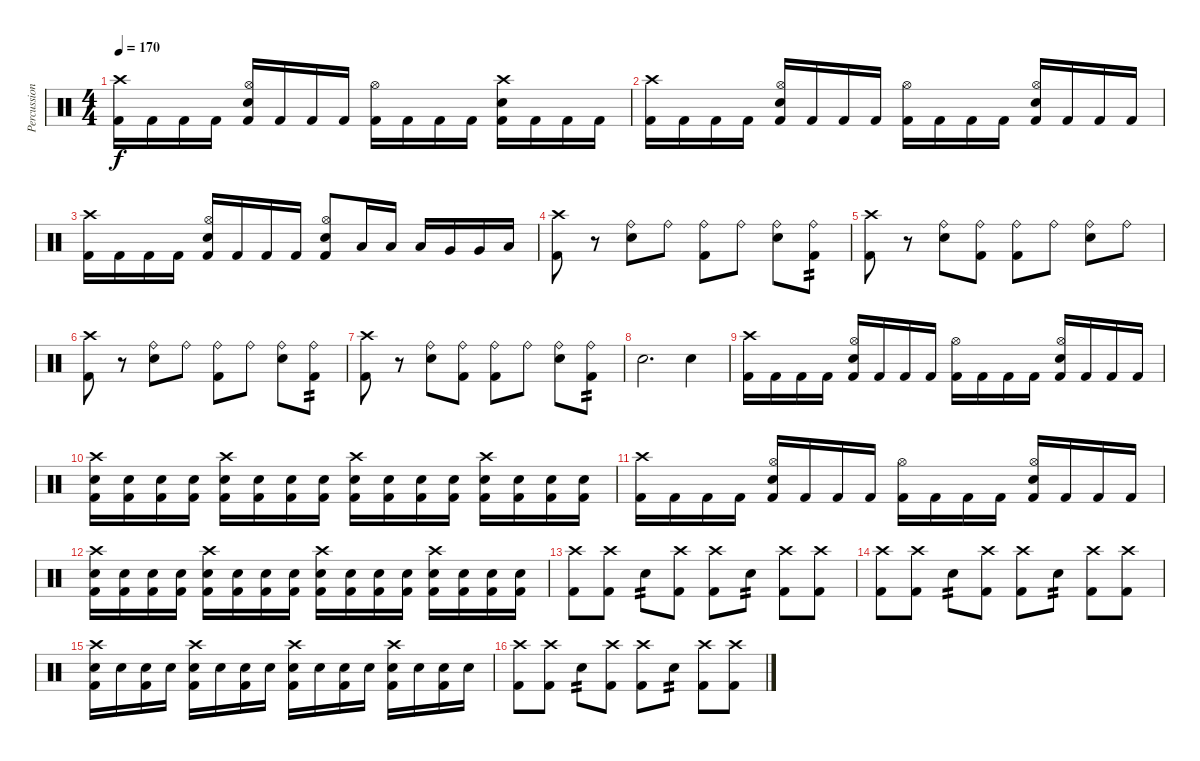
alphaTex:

\track ("Percussion" "Percussion") {instrument percussion}
\staff {score}
\articulation defaults
\ts (4 4)
\tempo 170
\clef neutral
\ks c
("Crash high (hit)" "Kick (hit) 2").16{dy f} "Kick (hit) 2".16 "Kick (hit) 2".16 "Kick (hit) 2".16 ("Hi-Hat (open)" "Electric Snare (hit)" "Kick (hit) 2").16 "Kick (hit) 2".16 "Kick (hit) 2".16 "Kick (hit) 2".16 ("Hi-Hat (open)" "Kick (hit) 2").16 "Kick (hit) 2".16 "Kick (hit) 2".16 "Kick (hit) 2".16 ("Crash high (hit)" "Electric Snare (hit)" "Kick (hit) 2").16 "Kick (hit) 2".16 "Kick (hit) 2".16 "Kick (hit) 2".16 |
("Crash high (hit)" "Kick (hit) 2").16 "Kick (hit) 2".16 "Kick (hit) 2".16 "Kick (hit) 2".16 ("Hi-Hat (open)" "Electric Snare (hit)" "Kick (hit) 2").16 "Kick (hit) 2".16 "Kick (hit) 2".16 "Kick (hit) 2".16 ("Hi-Hat (open)" "Kick (hit) 2").16 "Kick (hit) 2".16 "Kick (hit) 2".16 "Kick (hit) 2".16 ("Hi-Hat (open)" "Electric Snare (hit)" "Kick (hit) 2").16 "Kick (hit) 2".16 "Kick (hit) 2".16 "Kick (hit) 2".16 |
("Crash high (hit)" "Kick (hit) 2").16 "Kick (hit) 2".16 "Kick (hit) 2".16 "Kick (hit) 2".16 ("Hi-Hat (open)" "Electric Snare (hit)" "Kick (hit) 2").16 "Kick (hit) 2".16 "Kick (hit) 2".16 "Kick (hit) 2".16 ("Hi-Hat (open)" "Electric Snare (hit)" "Kick (hit) 2").8 "Low Tom (hit)".16 "Low Tom (hit)".16 "Low Tom (hit)".16 "Very Low Tom (hit)".16 "Very Low Tom (hit)".16 "Low Floor Tom (hit)".16 |
("Crash high (hit)" "Kick (hit) 2").8 r.8 ("Ride (bell)" "Electric Snare (hit)").8 "Ride (bell)".8 ("Ride (bell)" "Kick (hit) 2").8 "Ride (bell)".8 ("Ride (bell)" "Electric Snare (hit)").8 ("Ride (bell)" "Kick (hit) 2").8{tp 2} |
("Crash high (hit)" "Kick (hit) 2").8 r.8 ("Ride (bell)" "Electric Snare (hit)").8 ("Ride (bell)" "Kick (hit) 2").8 ("Ride (bell)" "Kick (hit) 2").8 "Ride (bell)".8 ("Ride (bell)" "Electric Snare (hit)").8 "Ride (bell)".8 |
("Crash high (hit)" "Kick (hit) 2").8 r.8 ("Ride (bell)" "Electric Snare (hit)").8 "Ride (bell)".8 ("Ride (bell)" "Kick (hit) 2").8 "Ride (bell)".8 ("Ride (bell)" "Electric Snare (hit)").8 ("Ride (bell)" "Kick (hit) 2").8{tp 2} |
("Crash high (hit)" "Kick (hit) 2").8 r.8 ("Ride (bell)" "Electric Snare (hit)").8 ("Ride (bell)" "Kick (hit) 2").8 ("Ride (bell)" "Kick (hit) 2").8 "Ride (bell)".8 ("Ride (bell)" "Electric Snare (hit)").8 ("Ride (bell)" "Kick (hit) 2").8{tp 2} |
"Electric Snare (hit)".2{d} "Electric Snare (hit)".4 |
("Crash high (hit)" "Kick (hit) 2").16 "Kick (hit) 2".16 "Kick (hit) 2".16 "Kick (hit) 2".16 ("Hi-Hat (open)" "Electric Snare (hit)" "Kick (hit) 2").16 "Kick (hit) 2".16 "Kick (hit) 2".16 "Kick (hit) 2".16 ("Hi-Hat (open)" "Kick (hit) 2").16 "Kick (hit) 2".16 "Kick (hit) 2".16 "Kick (hit) 2".16 ("Hi-Hat (open)" "Electric Snare (hit)" "Kick (hit) 2").16 "Kick (hit) 2".16 "Kick (hit) 2".16 "Kick (hit) 2".16 |
("Crash high (hit)" "Electric Snare (hit)" "Kick (hit) 2").16 ("Electric Snare (hit)" "Kick (hit) 2").16 ("Electric Snare (hit)" "Kick (hit) 2").16 ("Electric Snare (hit)" "Kick (hit) 2").16 ("Crash high (hit)" "Electric Snare (hit)" "Kick (hit) 2").16 ("Electric Snare (hit)" "Kick (hit) 2").16 ("Electric Snare (hit)" "Kick (hit) 2").16 ("Electric Snare (hit)" "Kick (hit) 2").16 ("Crash high (hit)" "Electric Snare (hit)" "Kick (hit) 2").16 ("Electric Snare (hit)" "Kick (hit) 2").16 ("Electric Snare (hit)" "Kick (hit) 2").16 ("Electric Snare (hit)" "Kick (hit) 2").16 ("Crash high (hit)" "Electric Snare (hit)" "Kick (hit) 2").16 ("Electric Snare (hit)" "Kick (hit) 2").16 ("Electric Snare (hit)" "Kick (hit) 2").16 ("Electric Snare (hit)" "Kick (hit) 2").16 |
("Crash high (hit)" "Kick (hit) 2").16 "Kick (hit) 2".16 "Kick (hit) 2".16 "Kick (hit) 2".16 ("Hi-Hat (open)" "Electric Snare (hit)" "Kick (hit) 2").16 "Kick (hit) 2".16 "Kick (hit) 2".16 "Kick (hit) 2".16 ("Hi-Hat (open)" "Kick (hit) 2").16 "Kick (hit) 2".16 "Kick (hit) 2".16 "Kick (hit) 2".16 ("Hi-Hat (open)" "Electric Snare (hit)" "Kick (hit) 2").16 "Kick (hit) 2".16 "Kick (hit) 2".16 "Kick (hit) 2".16 |
("Crash high (hit)" "Electric Snare (hit)" "Kick (hit) 2").16 ("Electric Snare (hit)" "Kick (hit) 2").16 ("Electric Snare (hit)" "Kick (hit) 2").16 ("Electric Snare (hit)" "Kick (hit) 2").16 ("Crash high (hit)" "Electric Snare (hit)" "Kick (hit) 2").16 ("Electric Snare (hit)" "Kick (hit) 2").16 ("Electric Snare (hit)" "Kick (hit) 2").16 ("Electric Snare (hit)" "Kick (hit) 2").16 ("Crash high (hit)" "Electric Snare (hit)" "Kick (hit) 2").16 ("Electric Snare (hit)" "Kick (hit) 2").16 ("Electric Snare (hit)" "Kick (hit) 2").16 ("Electric Snare (hit)" "Kick (hit) 2").16 ("Crash high (hit)" "Electric Snare (hit)" "Kick (hit) 2").16 ("Electric Snare (hit)" "Kick (hit) 2").16 ("Electric Snare (hit)" "Kick (hit) 2").16 ("Electric Snare (hit)" "Kick (hit) 2").16 |
("Crash high (hit)" "Kick (hit) 2").8 ("Crash high (hit)" "Kick (hit) 2").8 "Electric Snare (hit)".8{tp 2} ("Crash high (hit)" "Kick (hit) 2").8 ("Crash high (hit)" "Kick (hit) 2").8 "Electric Snare (hit)".8{tp 2} ("Crash high (hit)" "Kick (hit) 2").8 ("Crash high (hit)" "Kick (hit) 2").8 |
("Crash high (hit)" "Kick (hit) 2").8 ("Crash high (hit)" "Kick (hit) 2").8 "Electric Snare (hit)".8{tp 2} ("Crash high (hit)" "Kick (hit) 2").8 ("Crash high (hit)" "Kick (hit) 2").8 "Electric Snare (hit)".8{tp 2} ("Crash high (hit)" "Kick (hit) 2").8 ("Crash high (hit)" "Kick (hit) 2").8 |
("Crash high (hit)" "Electric Snare (hit)" "Kick (hit) 2").16 "Electric Snare (hit)".16 ("Electric Snare (hit)" "Kick (hit) 2").16 "Electric Snare (hit)".16 ("Crash high (hit)" "Electric Snare (hit)" "Kick (hit) 2").16 "Electric Snare (hit)".16 ("Electric Snare (hit)" "Kick (hit) 2").16 "Electric Snare (hit)".16 ("Crash high (hit)" "Electric Snare (hit)" "Kick (hit) 2").16 "Electric Snare (hit)".16 ("Electric Snare (hit)" "Kick (hit) 2").16 "Electric Snare (hit)".16 ("Crash high (hit)" "Electric Snare (hit)" "Kick (hit) 2").16 "Electric Snare (hit)".16 ("Electric Snare (hit)" "Kick (hit) 2").16 "Electric Snare (hit)".16 |
("Crash high (hit)" "Kick (hit) 2").8 ("Crash high (hit)" "Kick (hit) 2").8 "Electric Snare (hit)".8{tp 2} ("Crash high (hit)" "Kick (hit) 2").8 ("Crash high (hit)" "Kick (hit) 2").8 "Electric Snare (hit)".8{tp 2} ("Crash high (hit)" "Kick (hit) 2").8 ("Crash high (hit)" "Kick (hit) 2").8
